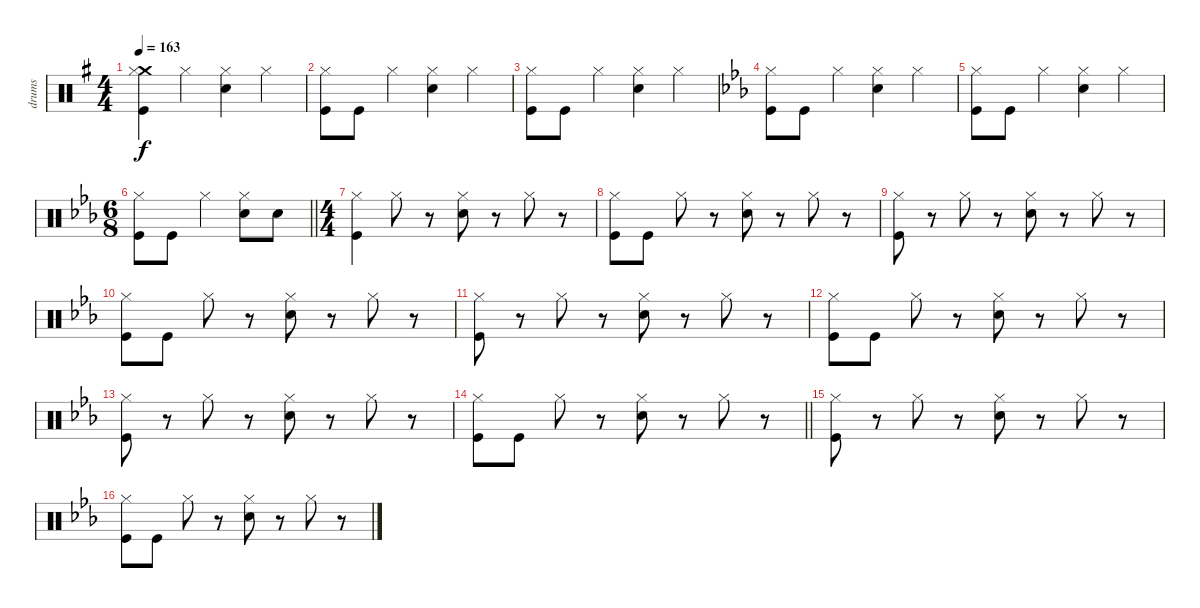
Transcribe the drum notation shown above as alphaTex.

\track ("drums" "drums") {instrument percussion}
\staff {score}
\articulation defaults
\ts (4 4)
\tempo 163
\clef neutral
\ks eminor
("Crash medium (hit)" "Kick (hit)" "Hi-Hat (closed)").4{dy f} "Hi-Hat (closed)".4 ("Electric Snare (hit)" "Hi-Hat (closed)").4 "Hi-Hat (closed)".4 |
("Kick (hit)" "Hi-Hat (closed)").8 "Kick (hit)".8 "Hi-Hat (closed)".4 ("Electric Snare (hit)" "Hi-Hat (closed)").4 "Hi-Hat (closed)".4 |
("Kick (hit)" "Hi-Hat (closed)").8 "Kick (hit)".8 "Hi-Hat (closed)".4 ("Snare (hit) 2" "Hi-Hat (closed)").4 "Hi-Hat (closed)".4 |
\ks cminor
("Kick (hit)" "Hi-Hat (closed)").8 "Kick (hit)".8 "Hi-Hat (closed)".4 ("Snare (hit) 2" "Hi-Hat (closed)").4 "Hi-Hat (closed)".4 |
("Kick (hit)" "Hi-Hat (closed)").8 "Kick (hit)".8 "Hi-Hat (closed)".4 ("Electric Snare (hit)" "Hi-Hat (closed)").4 "Hi-Hat (closed)".4 |
\ts (6 8)
\barLineRight lightlight
("Kick (hit)" "Hi-Hat (closed)").8 "Kick (hit)".8 "Hi-Hat (closed)".4 ("Electric Snare (hit)" "Hi-Hat (closed)").8 "Electric Snare (hit)".8 |
\ts (4 4)
("Kick (hit)" "Hi-Hat (closed)").4 "Hi-Hat (closed)".8 r.8 ("Electric Snare (hit)" "Hi-Hat (closed)").8 r.8 "Hi-Hat (closed)".8 r.8 |
("Kick (hit)" "Hi-Hat (closed)").8 "Kick (hit)".8 "Hi-Hat (closed)".8 r.8 ("Electric Snare (hit)" "Hi-Hat (closed)").8 r.8 "Hi-Hat (closed)".8 r.8 |
("Kick (hit)" "Hi-Hat (closed)").8 r.8 "Hi-Hat (closed)".8 r.8 ("Electric Snare (hit)" "Hi-Hat (closed)").8 r.8 "Hi-Hat (closed)".8 r.8 |
("Kick (hit)" "Hi-Hat (closed)").8 "Kick (hit)".8 "Hi-Hat (closed)".8 r.8 ("Electric Snare (hit)" "Hi-Hat (closed)").8 r.8 "Hi-Hat (closed)".8 r.8 |
("Kick (hit)" "Hi-Hat (closed)").8 r.8 "Hi-Hat (closed)".8 r.8 ("Electric Snare (hit)" "Hi-Hat (closed)").8 r.8 "Hi-Hat (closed)".8 r.8 |
("Kick (hit)" "Hi-Hat (closed)").8 "Kick (hit)".8 "Hi-Hat (closed)".8 r.8 ("Electric Snare (hit)" "Hi-Hat (closed)").8 r.8 "Hi-Hat (closed)".8 r.8 |
("Kick (hit)" "Hi-Hat (closed)").8 r.8 "Hi-Hat (closed)".8 r.8 ("Electric Snare (hit)" "Hi-Hat (closed)").8 r.8 "Hi-Hat (closed)".8 r.8 |
\barLineRight lightlight
("Kick (hit)" "Hi-Hat (closed)").8 "Kick (hit)".8 "Hi-Hat (closed)".8 r.8 ("Electric Snare (hit)" "Hi-Hat (closed)").8 r.8 "Hi-Hat (closed)".8 r.8 |
("Kick (hit)" "Hi-Hat (closed)").8 r.8 "Hi-Hat (closed)".8 r.8 ("Electric Snare (hit)" "Hi-Hat (closed)").8 r.8 "Hi-Hat (closed)".8 r.8 |
("Kick (hit)" "Hi-Hat (closed)").8 "Kick (hit)".8 "Hi-Hat (closed)".8 r.8 ("Electric Snare (hit)" "Hi-Hat (closed)").8 r.8 "Hi-Hat (closed)".8 r.8
